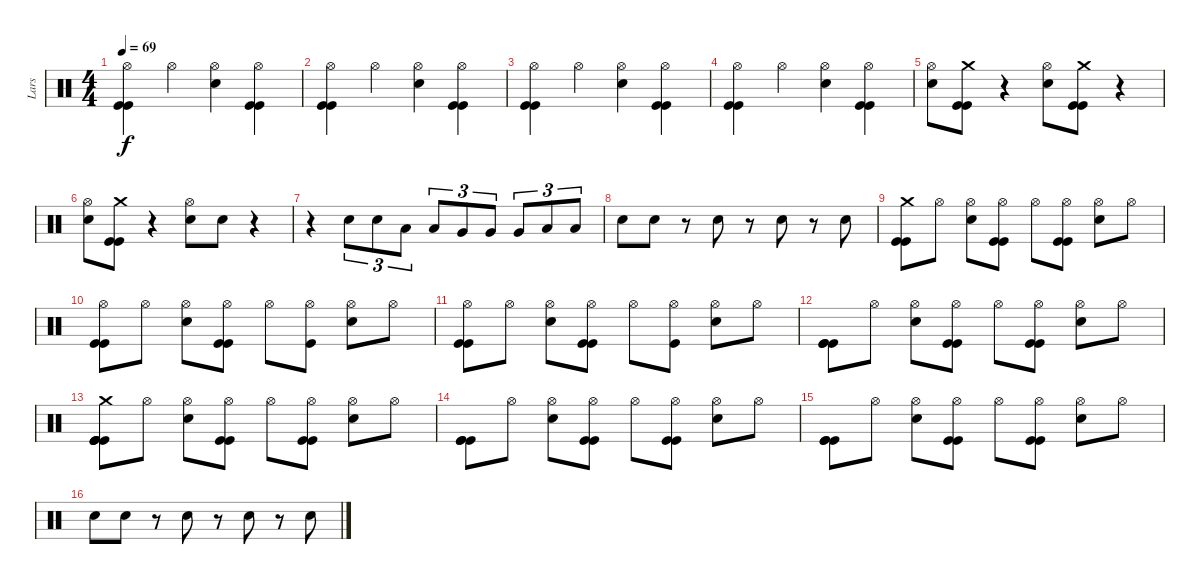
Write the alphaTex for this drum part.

\track ("Lars" "Lars") {instrument percussion}
\staff {score}
\articulation defaults
\ts (4 4)
\tempo 69
\clef neutral
\ks c
("Hi-Hat (open)" "Kick (hit)" "Kick (hit)").4{dy f} "Hi-Hat (open)".4 ("Hi-Hat (open)" "Electric Snare (hit)").4 ("Hi-Hat (open)" "Kick (hit)" "Kick (hit)").4 |
("Hi-Hat (open)" "Kick (hit)" "Kick (hit)").4 "Hi-Hat (open)".4 ("Hi-Hat (open)" "Electric Snare (hit)").4 ("Hi-Hat (open)" "Kick (hit)" "Kick (hit)").4 |
("Hi-Hat (open)" "Kick (hit)" "Kick (hit)").4 "Hi-Hat (open)".4 ("Hi-Hat (open)" "Electric Snare (hit)").4 ("Hi-Hat (open)" "Kick (hit)" "Kick (hit)").4 |
("Hi-Hat (open)" "Kick (hit)" "Kick (hit)").4 "Hi-Hat (open)".4 ("Hi-Hat (open)" "Electric Snare (hit)").4 ("Hi-Hat (open)" "Kick (hit)" "Kick (hit)").4 |
("Hi-Hat (open)" "Electric Snare (hit)").8 ("Kick (hit)" "Kick (hit)" "Crash medium (hit)").8 r.4 ("Hi-Hat (open)" "Electric Snare (hit)").8 ("Kick (hit)" "Kick (hit)" "Crash medium (hit)").8 r.4 |
("Hi-Hat (open)" "Electric Snare (hit)").8 ("Kick (hit)" "Kick (hit)" "Crash medium (hit)").8 r.4 ("Hi-Hat (open)" "Electric Snare (hit)").8 "Electric Snare (hit)".8 r.4 |
r.4 "Electric Snare (hit)".8{tu (3 2)} "Electric Snare (hit)".8{tu (3 2)} "Low Tom (hit)".8{tu (3 2)} "Low Tom (hit)".8{tu (3 2)} "Very Low Tom (hit)".8{tu (3 2)} "Very Low Tom (hit)".8{tu (3 2)} "Very Low Tom (hit)".8{tu (3 2)} "Low Floor Tom (hit)".8{tu (3 2)} "Low Floor Tom (hit)".8{tu (3 2)} |
"Electric Snare (hit)".8 "Electric Snare (hit)".8 r.8 "Electric Snare (hit)".8 r.8 "Electric Snare (hit)".8 r.8 "Electric Snare (hit)".8 |
("Kick (hit)" "Kick (hit)" "Crash medium (hit)").8 "Hi-Hat (open)".8 ("Hi-Hat (open)" "Electric Snare (hit)").8 ("Hi-Hat (open)" "Kick (hit)" "Kick (hit)").8 "Hi-Hat (open)".8 ("Hi-Hat (open)" "Kick (hit)" "Kick (hit)").8 ("Hi-Hat (open)" "Electric Snare (hit)").8 "Hi-Hat (open)".8 |
("Hi-Hat (open)" "Kick (hit)" "Kick (hit)").8 "Hi-Hat (open)".8 ("Hi-Hat (open)" "Electric Snare (hit)").8 ("Hi-Hat (open)" "Kick (hit)" "Kick (hit)").8 "Hi-Hat (open)".8 ("Hi-Hat (open)" "Kick (hit)").8 ("Hi-Hat (open)" "Electric Snare (hit)").8 "Hi-Hat (open)".8 |
("Hi-Hat (open)" "Kick (hit)" "Kick (hit)").8 "Hi-Hat (open)".8 ("Hi-Hat (open)" "Electric Snare (hit)").8 ("Hi-Hat (open)" "Kick (hit)" "Kick (hit)").8 "Hi-Hat (open)".8 ("Hi-Hat (open)" "Kick (hit)").8 ("Hi-Hat (open)" "Electric Snare (hit)").8 "Hi-Hat (open)".8 |
("Kick (hit)" "Kick (hit)" "Kick (hit)").8 "Hi-Hat (open)".8 ("Hi-Hat (open)" "Electric Snare (hit)").8 ("Hi-Hat (open)" "Kick (hit)" "Kick (hit)").8 "Hi-Hat (open)".8 ("Hi-Hat (open)" "Kick (hit)" "Kick (hit)").8 ("Hi-Hat (open)" "Electric Snare (hit)").8 "Hi-Hat (open)".8 |
("Kick (hit)" "Kick (hit)" "Kick (hit)" "Kick (hit)" "Crash medium (hit)").8 "Hi-Hat (open)".8 ("Hi-Hat (open)" "Electric Snare (hit)").8 ("Hi-Hat (open)" "Kick (hit)" "Kick (hit)").8 "Hi-Hat (open)".8 ("Hi-Hat (open)" "Kick (hit)" "Kick (hit)").8 ("Hi-Hat (open)" "Electric Snare (hit)").8 "Hi-Hat (open)".8 |
("Kick (hit)" "Kick (hit)" "Kick (hit)").8 "Hi-Hat (open)".8 ("Hi-Hat (open)" "Electric Snare (hit)").8 ("Hi-Hat (open)" "Kick (hit)" "Kick (hit)").8 "Hi-Hat (open)".8 ("Hi-Hat (open)" "Kick (hit)" "Kick (hit)").8 ("Hi-Hat (open)" "Electric Snare (hit)").8 "Hi-Hat (open)".8 |
("Kick (hit)" "Kick (hit)" "Kick (hit)").8 "Hi-Hat (open)".8 ("Hi-Hat (open)" "Electric Snare (hit)").8 ("Hi-Hat (open)" "Kick (hit)" "Kick (hit)").8 "Hi-Hat (open)".8 ("Hi-Hat (open)" "Kick (hit)" "Kick (hit)").8 ("Hi-Hat (open)" "Electric Snare (hit)").8 "Hi-Hat (open)".8 |
"Electric Snare (hit)".8 "Electric Snare (hit)".8 r.8 "Electric Snare (hit)".8 r.8 "Electric Snare (hit)".8 r.8 "Electric Snare (hit)".8
